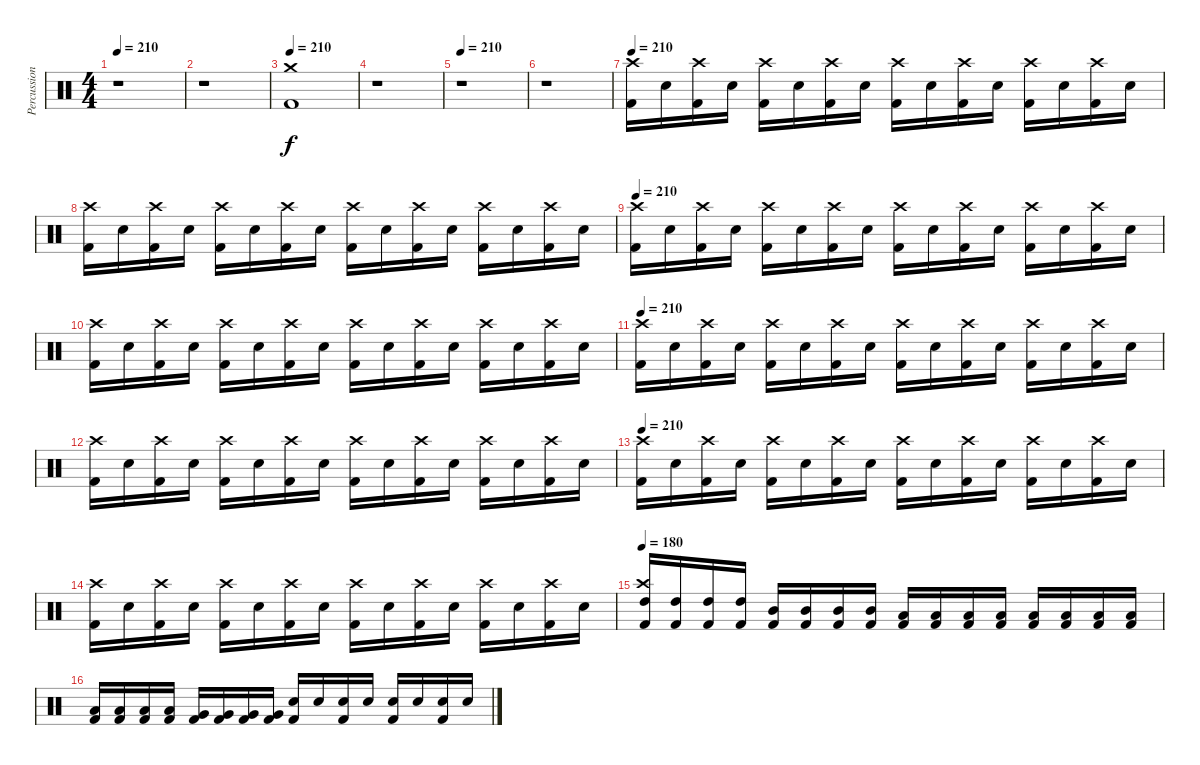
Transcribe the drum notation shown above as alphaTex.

\track ("Percussion" "Percussion") {instrument percussion}
\staff {score}
\articulation defaults
\ts (4 4)
\tempo 210
\clef neutral
\ks c
r.1{dy f} |
r.1 |
\tempo 210
("Crash medium (hit)" "Kick (hit) 2").1 |
r.1 |
\tempo 210
r.1 |
r.1 |
\tempo 210
("Crash high (hit)" "Kick (hit) 2").16 "Electric Snare (hit)".16 ("Crash high (hit)" "Kick (hit) 2").16 "Electric Snare (hit)".16 ("Crash high (hit)" "Kick (hit) 2").16 "Electric Snare (hit)".16 ("Crash high (hit)" "Kick (hit) 2").16 "Electric Snare (hit)".16 ("Crash high (hit)" "Kick (hit) 2").16 "Electric Snare (hit)".16 ("Crash high (hit)" "Kick (hit) 2").16 "Electric Snare (hit)".16 ("Crash high (hit)" "Kick (hit) 2").16 "Electric Snare (hit)".16 ("Crash high (hit)" "Kick (hit) 2").16 "Electric Snare (hit)".16 |
("Crash high (hit)" "Kick (hit) 2").16 "Electric Snare (hit)".16 ("Crash high (hit)" "Kick (hit) 2").16 "Electric Snare (hit)".16 ("Crash high (hit)" "Kick (hit) 2").16 "Electric Snare (hit)".16 ("Crash high (hit)" "Kick (hit) 2").16 "Electric Snare (hit)".16 ("Crash high (hit)" "Kick (hit) 2").16 "Electric Snare (hit)".16 ("Crash high (hit)" "Kick (hit) 2").16 "Electric Snare (hit)".16 ("Crash high (hit)" "Kick (hit) 2").16 "Electric Snare (hit)".16 ("Crash high (hit)" "Kick (hit) 2").16 "Electric Snare (hit)".16 |
\tempo 210
("Crash high (hit)" "Kick (hit) 2").16 "Electric Snare (hit)".16 ("Crash high (hit)" "Kick (hit) 2").16 "Electric Snare (hit)".16 ("Crash high (hit)" "Kick (hit) 2").16 "Electric Snare (hit)".16 ("Crash high (hit)" "Kick (hit) 2").16 "Electric Snare (hit)".16 ("Crash high (hit)" "Kick (hit) 2").16 "Electric Snare (hit)".16 ("Crash high (hit)" "Kick (hit) 2").16 "Electric Snare (hit)".16 ("Crash high (hit)" "Kick (hit) 2").16 "Electric Snare (hit)".16 ("Crash high (hit)" "Kick (hit) 2").16 "Electric Snare (hit)".16 |
("Crash high (hit)" "Kick (hit) 2").16 "Electric Snare (hit)".16 ("Crash high (hit)" "Kick (hit) 2").16 "Electric Snare (hit)".16 ("Crash high (hit)" "Kick (hit) 2").16 "Electric Snare (hit)".16 ("Crash high (hit)" "Kick (hit) 2").16 "Electric Snare (hit)".16 ("Crash high (hit)" "Kick (hit) 2").16 "Electric Snare (hit)".16 ("Crash high (hit)" "Kick (hit) 2").16 "Electric Snare (hit)".16 ("Crash high (hit)" "Kick (hit) 2").16 "Electric Snare (hit)".16 ("Crash high (hit)" "Kick (hit) 2").16 "Electric Snare (hit)".16 |
\tempo 210
("Crash high (hit)" "Kick (hit) 2").16 "Electric Snare (hit)".16 ("Crash high (hit)" "Kick (hit) 2").16 "Electric Snare (hit)".16 ("Crash high (hit)" "Kick (hit) 2").16 "Electric Snare (hit)".16 ("Crash high (hit)" "Kick (hit) 2").16 "Electric Snare (hit)".16 ("Crash high (hit)" "Kick (hit) 2").16 "Electric Snare (hit)".16 ("Crash high (hit)" "Kick (hit) 2").16 "Electric Snare (hit)".16 ("Crash high (hit)" "Kick (hit) 2").16 "Electric Snare (hit)".16 ("Crash high (hit)" "Kick (hit) 2").16 "Electric Snare (hit)".16 |
("Crash high (hit)" "Kick (hit) 2").16 "Electric Snare (hit)".16 ("Crash high (hit)" "Kick (hit) 2").16 "Electric Snare (hit)".16 ("Crash high (hit)" "Kick (hit) 2").16 "Electric Snare (hit)".16 ("Crash high (hit)" "Kick (hit) 2").16 "Electric Snare (hit)".16 ("Crash high (hit)" "Kick (hit) 2").16 "Electric Snare (hit)".16 ("Crash high (hit)" "Kick (hit) 2").16 "Electric Snare (hit)".16 ("Crash high (hit)" "Kick (hit) 2").16 "Electric Snare (hit)".16 ("Crash high (hit)" "Kick (hit) 2").16 "Electric Snare (hit)".16 |
\tempo 210
("Crash high (hit)" "Kick (hit) 2").16 "Electric Snare (hit)".16 ("Crash high (hit)" "Kick (hit) 2").16 "Electric Snare (hit)".16 ("Crash high (hit)" "Kick (hit) 2").16 "Electric Snare (hit)".16 ("Crash high (hit)" "Kick (hit) 2").16 "Electric Snare (hit)".16 ("Crash high (hit)" "Kick (hit) 2").16 "Electric Snare (hit)".16 ("Crash high (hit)" "Kick (hit) 2").16 "Electric Snare (hit)".16 ("Crash high (hit)" "Kick (hit) 2").16 "Electric Snare (hit)".16 ("Crash high (hit)" "Kick (hit) 2").16 "Electric Snare (hit)".16 |
("Crash high (hit)" "Kick (hit) 2").16 "Electric Snare (hit)".16 ("Crash high (hit)" "Kick (hit) 2").16 "Electric Snare (hit)".16 ("Crash high (hit)" "Kick (hit) 2").16 "Electric Snare (hit)".16 ("Crash high (hit)" "Kick (hit) 2").16 "Electric Snare (hit)".16 ("Crash high (hit)" "Kick (hit) 2").16 "Electric Snare (hit)".16 ("Crash high (hit)" "Kick (hit) 2").16 "Electric Snare (hit)".16 ("Crash high (hit)" "Kick (hit) 2").16 "Electric Snare (hit)".16 ("Crash high (hit)" "Kick (hit) 2").16 "Electric Snare (hit)".16 |
\tempo 180
("Crash high (hit)" "High Tom (hit)" "Kick (hit) 2").16 ("High Tom (hit)" "Kick (hit) 2").16 ("High Tom (hit)" "Kick (hit) 2").16 ("High Tom (hit)" "Kick (hit) 2").16 ("Mid Tom (hit)" "Kick (hit) 2").16 ("Mid Tom (hit)" "Kick (hit) 2").16 ("Mid Tom (hit)" "Kick (hit) 2").16 ("Mid Tom (hit)" "Kick (hit) 2").16 ("Low Tom (hit)" "Kick (hit) 2").16 ("Low Tom (hit)" "Kick (hit) 2").16 ("Low Tom (hit)" "Kick (hit) 2").16 ("Low Tom (hit)" "Kick (hit) 2").16 ("Low Floor Tom (hit)" "Kick (hit) 2").16 ("Low Floor Tom (hit)" "Kick (hit) 2").16 ("Low Floor Tom (hit)" "Kick (hit) 2").16 ("Low Floor Tom (hit)" "Kick (hit) 2").16 |
("Low Tom (hit)" "Kick (hit) 2").16 ("Low Tom (hit)" "Kick (hit) 2").16 ("Low Tom (hit)" "Kick (hit) 2").16 ("Low Tom (hit)" "Kick (hit) 2").16 ("Very Low Tom (hit)" "Kick (hit) 2").16 ("Very Low Tom (hit)" "Kick (hit) 2").16 ("Very Low Tom (hit)" "Kick (hit) 2").16 ("Very Low Tom (hit)" "Kick (hit) 2").16 ("Electric Snare (hit)" "Kick (hit) 2").16 "Electric Snare (hit)".16 ("Electric Snare (hit)" "Kick (hit) 2").16 "Electric Snare (hit)".16 ("Electric Snare (hit)" "Kick (hit) 2").16 "Electric Snare (hit)".16 ("Electric Snare (hit)" "Kick (hit) 2").16 "Electric Snare (hit)".16
